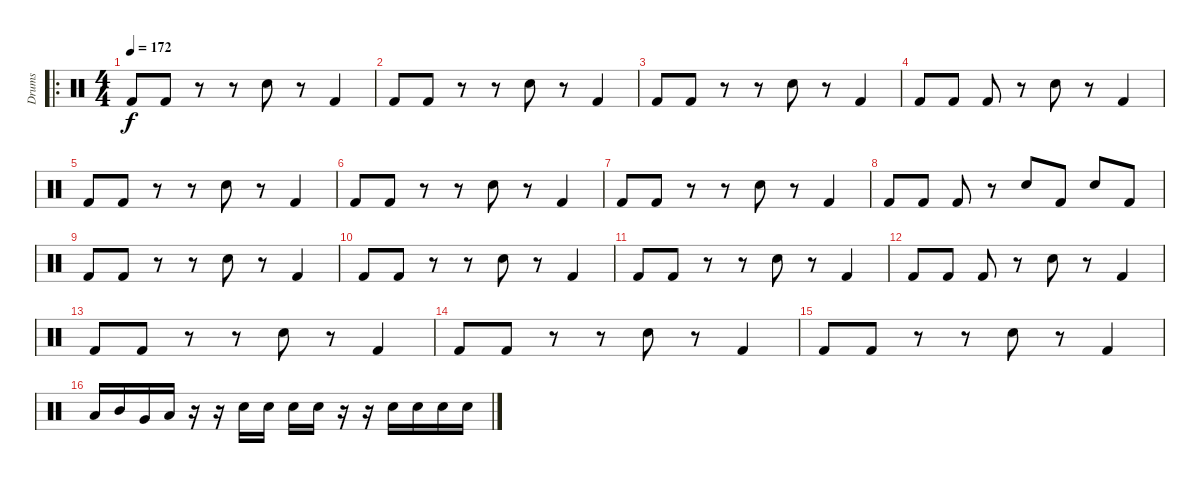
\track ("Drums" "Drums") {instrument percussion}
\staff {score}
\articulation defaults
\ro
\ts (4 4)
\tempo 172
\clef neutral
\ks c "Kick (hit) 2".8{dy f} "Kick (hit) 2".8
r.8 r.8 "Snare (hit) 2".8 r.8 "Kick (hit) 2".4 |
"Kick (hit) 2".8 "Kick (hit) 2".8 r.8 r.8 "Snare (hit) 2".8 r.8 "Kick (hit) 2".4 |
"Kick (hit) 2".8 "Kick (hit) 2".8 r.8 r.8 "Snare (hit) 2".8 r.8 "Kick (hit) 2".4 |
"Kick (hit) 2".8 "Kick (hit) 2".8 "Kick (hit) 2".8 r.8 "Snare (hit) 2".8 r.8 "Kick (hit) 2".4 |
"Kick (hit) 2".8 "Kick (hit) 2".8 r.8 r.8 "Snare (hit) 2".8 r.8 "Kick (hit) 2".4 |
"Kick (hit) 2".8 "Kick (hit) 2".8 r.8 r.8 "Snare (hit) 2".8 r.8 "Kick (hit) 2".4 |
"Kick (hit) 2".8 "Kick (hit) 2".8 r.8 r.8 "Snare (hit) 2".8 r.8 "Kick (hit) 2".4 |
"Kick (hit) 2".8 "Kick (hit) 2".8 "Kick (hit) 2".8 r.8 "Snare (hit) 2".8 "Kick (hit) 2".8 "Snare (hit) 2".8 "Kick (hit) 2".8 |
"Kick (hit) 2".8 "Kick (hit) 2".8 r.8 r.8 "Snare (hit) 2".8 r.8 "Kick (hit) 2".4 |
"Kick (hit) 2".8 "Kick (hit) 2".8 r.8 r.8 "Snare (hit) 2".8 r.8 "Kick (hit) 2".4 |
"Kick (hit) 2".8 "Kick (hit) 2".8 r.8 r.8 "Snare (hit) 2".8 r.8 "Kick (hit) 2".4 |
"Kick (hit) 2".8 "Kick (hit) 2".8 "Kick (hit) 2".8 r.8 "Snare (hit) 2".8 r.8 "Kick (hit) 2".4 |
"Kick (hit) 2".8 "Kick (hit) 2".8 r.8 r.8 "Snare (hit) 2".8 r.8 "Kick (hit) 2".4 |
"Kick (hit) 2".8 "Kick (hit) 2".8 r.8 r.8 "Snare (hit) 2".8 r.8 "Kick (hit) 2".4 |
"Kick (hit) 2".8 "Kick (hit) 2".8 r.8 r.8 "Snare (hit) 2".8 r.8 "Kick (hit) 2".4 |
"Low Tom (hit)".16 "Mid Tom (hit)".16 "Very Low Tom (hit)".16 "Low Tom (hit)".16 r.16 r.16 "Snare (hit) 2".16 "Snare (hit) 2".16 "Snare (hit) 2".16 "Snare (hit) 2".16 r.16 r.16 "Snare (hit) 2".16 "Snare (hit) 2".16 "Snare (hit) 2".16 "Snare (hit) 2".16
